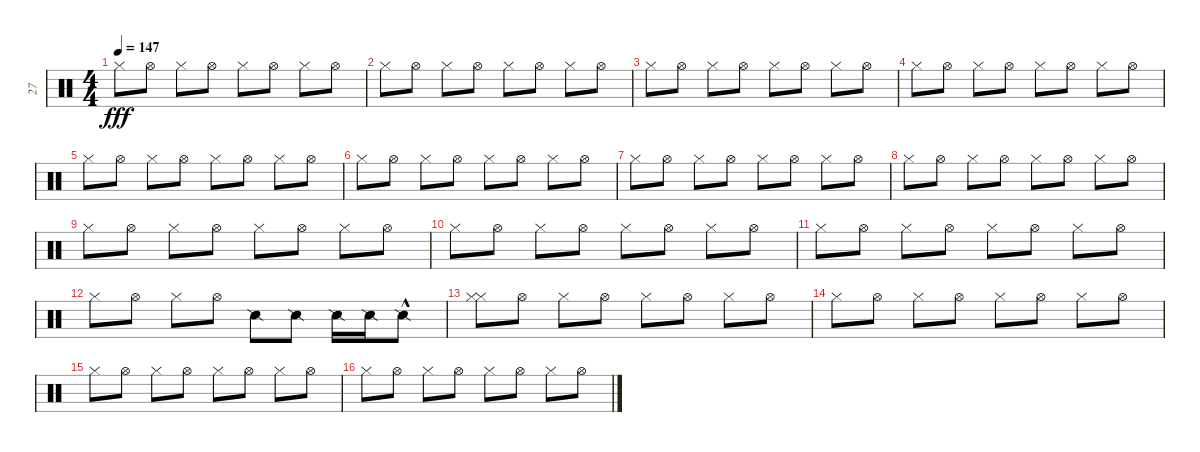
\track ("27" "27") {instrument percussion}
\staff {score}
\articulation defaults
\ts (4 4)
\tempo 147
\clef neutral
\ks c "Hi-Hat (closed)".8{dy fff} "Hi-Hat (open)".8 "Hi-Hat (closed)".8 "Hi-Hat (open)".8 "Hi-Hat (closed)".8 "Hi-Hat (open)".8 "Hi-Hat (closed)".8 "Hi-Hat (open)".8
|
"Hi-Hat (closed)".8 "Hi-Hat (open)".8 "Hi-Hat (closed)".8 "Hi-Hat (open)".8 "Hi-Hat (closed)".8 "Hi-Hat (open)".8 "Hi-Hat (closed)".8 "Hi-Hat (open)".8 |
"Hi-Hat (closed)".8 "Hi-Hat (open)".8 "Hi-Hat (closed)".8 "Hi-Hat (open)".8 "Hi-Hat (closed)".8 "Hi-Hat (open)".8 "Hi-Hat (closed)".8 "Hi-Hat (open)".8 |
"Hi-Hat (closed)".8 "Hi-Hat (open)".8 "Hi-Hat (closed)".8 "Hi-Hat (open)".8 "Hi-Hat (closed)".8 "Hi-Hat (open)".8 "Hi-Hat (closed)".8 "Hi-Hat (open)".8 |
"Hi-Hat (closed)".8 "Hi-Hat (open)".8 "Hi-Hat (closed)".8 "Hi-Hat (open)".8 "Hi-Hat (closed)".8 "Hi-Hat (open)".8 "Hi-Hat (closed)".8 "Hi-Hat (open)".8 |
"Hi-Hat (closed)".8 "Hi-Hat (open)".8 "Hi-Hat (closed)".8 "Hi-Hat (open)".8 "Hi-Hat (closed)".8 "Hi-Hat (open)".8 "Hi-Hat (closed)".8 "Hi-Hat (open)".8 |
"Hi-Hat (closed)".8 "Hi-Hat (open)".8 "Hi-Hat (closed)".8 "Hi-Hat (open)".8 "Hi-Hat (closed)".8 "Hi-Hat (open)".8 "Hi-Hat (closed)".8 "Hi-Hat (open)".8 |
"Hi-Hat (closed)".8 "Hi-Hat (open)".8 "Hi-Hat (closed)".8 "Hi-Hat (open)".8 "Hi-Hat (closed)".8 "Hi-Hat (open)".8 "Hi-Hat (closed)".8 "Hi-Hat (open)".8 |
"Hi-Hat (closed)".8 "Hi-Hat (open)".8 "Hi-Hat (closed)".8 "Hi-Hat (open)".8 "Hi-Hat (closed)".8 "Hi-Hat (open)".8 "Hi-Hat (closed)".8 "Hi-Hat (open)".8 |
"Hi-Hat (closed)".8 "Hi-Hat (open)".8 "Hi-Hat (closed)".8 "Hi-Hat (open)".8 "Hi-Hat (closed)".8 "Hi-Hat (open)".8 "Hi-Hat (closed)".8 "Hi-Hat (open)".8 |
"Hi-Hat (closed)".8 "Hi-Hat (open)".8 "Hi-Hat (closed)".8 "Hi-Hat (open)".8 "Hi-Hat (closed)".8 "Hi-Hat (open)".8 "Hi-Hat (closed)".8 "Hi-Hat (open)".8 |
"Hi-Hat (closed)".8 "Hi-Hat (open)".8 "Hi-Hat (closed)".8 "Hi-Hat (open)".8 "Snare (side stick) 2".8 "Snare (side stick) 2".8 "Snare (side stick) 2".16 "Snare (side stick) 2".16 "Snare (side stick) 2"{hac}.8 |
("Hi-Hat (closed)" "Hi-Hat (closed)").8 "Hi-Hat (open)".8 "Hi-Hat (closed)".8 "Hi-Hat (open)".8 "Hi-Hat (closed)".8 "Hi-Hat (open)".8 "Hi-Hat (closed)".8 "Hi-Hat (open)".8 |
"Hi-Hat (closed)".8 "Hi-Hat (open)".8 "Hi-Hat (closed)".8 "Hi-Hat (open)".8 "Hi-Hat (closed)".8 "Hi-Hat (open)".8 "Hi-Hat (closed)".8 "Hi-Hat (open)".8 |
"Hi-Hat (closed)".8 "Hi-Hat (open)".8 "Hi-Hat (closed)".8 "Hi-Hat (open)".8 "Hi-Hat (closed)".8 "Hi-Hat (open)".8 "Hi-Hat (closed)".8 "Hi-Hat (open)".8 |
"Hi-Hat (closed)".8 "Hi-Hat (open)".8 "Hi-Hat (closed)".8 "Hi-Hat (open)".8 "Hi-Hat (closed)".8 "Hi-Hat (open)".8 "Hi-Hat (closed)".8 "Hi-Hat (open)".8
